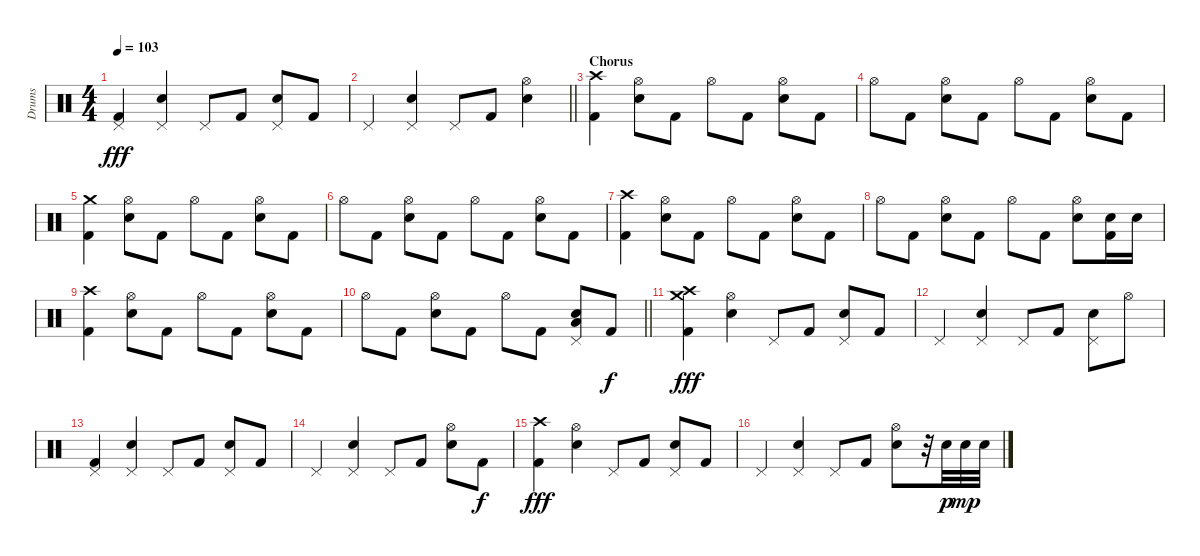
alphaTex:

\track ("Drums" "Drums") {instrument percussion}
\staff {score}
\articulation defaults
\ts (4 4)
\tempo 103
\clef neutral
\ks c
("Pedal Hi-Hat (hit)" "Kick (hit) 2").4{dy fff} ("Pedal Hi-Hat (hit)" "Snare (hit) 2").4 "Pedal Hi-Hat (hit)".8 "Kick (hit) 2".8 ("Pedal Hi-Hat (hit)" "Snare (hit) 2").8 "Kick (hit) 2".8 |
\barLineRight lightlight "Pedal Hi-Hat (hit)".4
("Pedal Hi-Hat (hit)" "Snare (hit) 2").4 "Pedal Hi-Hat (hit)".8 "Kick (hit) 2".8 ("Hi-Hat (open)" "Snare (hit) 2").4 |
\section ("" "Chorus")
("Crash high (hit)" "Kick (hit) 2").4 ("Hi-Hat (open)" "Snare (hit) 2").8 "Kick (hit) 2".8 "Hi-Hat (open)".8 "Kick (hit) 2".8 ("Hi-Hat (open)" "Snare (hit) 2").8 "Kick (hit) 2".8 |
"Hi-Hat (open)".8 "Kick (hit) 2".8 ("Hi-Hat (open)" "Snare (hit) 2").8 "Kick (hit) 2".8 "Hi-Hat (open)".8 "Kick (hit) 2".8 ("Hi-Hat (open)" "Snare (hit) 2").8 "Kick (hit) 2".8 |
("Crash medium (hit)" "Kick (hit) 2").4 ("Hi-Hat (open)" "Snare (hit) 2").8 "Kick (hit) 2".8 "Hi-Hat (open)".8 "Kick (hit) 2".8 ("Hi-Hat (open)" "Snare (hit) 2").8 "Kick (hit) 2".8 |
"Hi-Hat (open)".8 "Kick (hit) 2".8 ("Hi-Hat (open)" "Snare (hit) 2").8 "Kick (hit) 2".8 "Hi-Hat (open)".8 "Kick (hit) 2".8 ("Hi-Hat (open)" "Snare (hit) 2").8 "Kick (hit) 2".8 |
("Crash high (hit)" "Kick (hit) 2").4 ("Hi-Hat (open)" "Snare (hit) 2").8 "Kick (hit) 2".8 "Hi-Hat (open)".8 "Kick (hit) 2".8 ("Hi-Hat (open)" "Snare (hit) 2").8 "Kick (hit) 2".8 |
"Hi-Hat (open)".8 "Kick (hit) 2".8 ("Hi-Hat (open)" "Snare (hit) 2").8 "Kick (hit) 2".8 "Hi-Hat (open)".8 "Kick (hit) 2".8 ("Hi-Hat (open)" "Snare (hit) 2").8 ("Snare (hit) 2" "Kick (hit) 2").16 "Snare (hit) 2".16 |
("Crash high (hit)" "Kick (hit) 2").4 ("Hi-Hat (open)" "Snare (hit) 2").8 "Kick (hit) 2".8 "Hi-Hat (open)".8 "Kick (hit) 2".8 ("Hi-Hat (open)" "Snare (hit) 2").8 "Kick (hit) 2".8 |
\barLineRight lightlight "Hi-Hat (open)".8 "Kick (hit) 2".8
("Hi-Hat (open)" "Snare (hit) 2").8 "Kick (hit) 2".8 "Hi-Hat (open)".8 "Kick (hit) 2".8 ("Pedal Hi-Hat (hit)" "Low Tom (hit)" "Snare (hit) 2").8 "Kick (hit) 2".8{dy f} |
("Crash high (hit)" "Crash medium (hit)" "Kick (hit) 2").4{dy fff} ("Hi-Hat (open)" "Snare (hit) 2").4 "Pedal Hi-Hat (hit)".8 "Kick (hit) 2".8 ("Pedal Hi-Hat (hit)" "Snare (hit) 2").8 "Kick (hit) 2".8 |
"Pedal Hi-Hat (hit)".4 ("Pedal Hi-Hat (hit)" "Snare (hit) 2").4 "Pedal Hi-Hat (hit)".8 "Kick (hit) 2".8 ("Pedal Hi-Hat (hit)" "Snare (hit) 2").8 "Hi-Hat (open)".8 |
("Pedal Hi-Hat (hit)" "Kick (hit) 2").4 ("Pedal Hi-Hat (hit)" "Snare (hit) 2").4 "Pedal Hi-Hat (hit)".8 "Kick (hit) 2".8 ("Pedal Hi-Hat (hit)" "Snare (hit) 2").8 "Kick (hit) 2".8 |
"Pedal Hi-Hat (hit)".4 ("Pedal Hi-Hat (hit)" "Snare (hit) 2").4 "Pedal Hi-Hat (hit)".8 "Kick (hit) 2".8 ("Hi-Hat (open)" "Snare (hit) 2").8 "Kick (hit) 2".8{dy f} |
("Crash high (hit)" "Kick (hit) 2").4{dy fff} ("Hi-Hat (open)" "Snare (hit) 2").4 "Pedal Hi-Hat (hit)".8 "Kick (hit) 2".8 ("Pedal Hi-Hat (hit)" "Snare (hit) 2").8 "Kick (hit) 2".8 |
"Pedal Hi-Hat (hit)".4 ("Pedal Hi-Hat (hit)" "Snare (hit) 2").4 "Pedal Hi-Hat (hit)".8 "Kick (hit) 2".8 ("Hi-Hat (open)" "Snare (hit) 2").8 r.32 "Snare (hit) 2".32{dy p} "Snare (hit) 2".32{dy mp} "Snare (hit) 2".32
